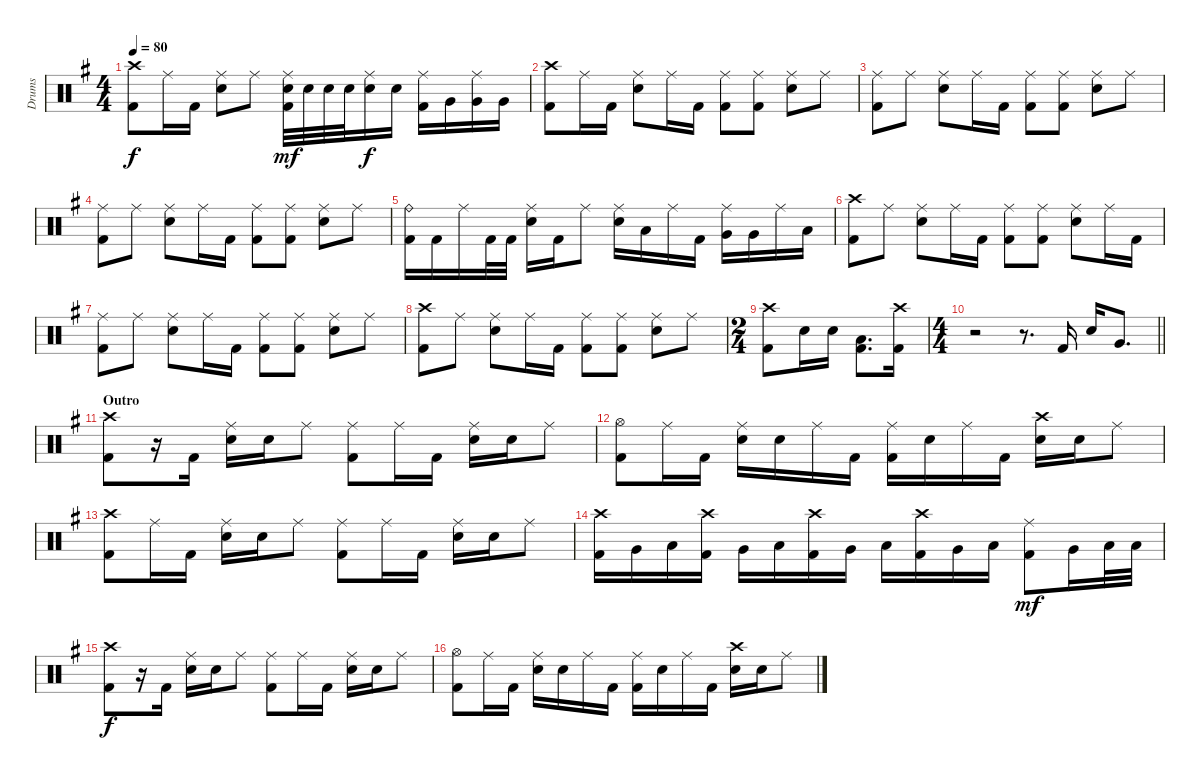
\track ("Drums" "Drums") {instrument percussion}
\staff {score}
\articulation defaults
\ts (4 4)
\tempo 80
\clef neutral
\ks g
("Crash high (hit)" "Kick (hit) 2").8{dy f} "Ride (middle)".16 "Kick (hit) 2".16 ("Ride (middle)" "Electric Snare (hit)").8 "Ride (middle)".8 ("Ride (middle)" "Electric Snare (hit)" "Kick (hit) 2").32{dy mf} "Electric Snare (hit)".32 "Electric Snare (hit)".32 "Electric Snare (hit)".32 ("Ride (middle)" "Electric Snare (hit)").16{dy f} "Electric Snare (hit)".16 ("Ride (middle)" "Kick (hit) 2").16 "Very Low Tom (hit)".16 ("Ride (middle)" "Very Low Tom (hit)").16 "Very Low Tom (hit)".16 |
("Crash high (hit)" "Kick (hit) 2").8 "Ride (middle)".16 "Kick (hit) 2".16 ("Ride (middle)" "Electric Snare (hit)").8 "Ride (middle)".16 "Kick (hit) 2".16 ("Ride (middle)" "Kick (hit) 2").8 ("Ride (middle)" "Kick (hit) 2").8 ("Ride (middle)" "Electric Snare (hit)").8 "Ride (middle)".8 |
("Ride (middle)" "Kick (hit) 2").8 "Ride (middle)".8 ("Ride (middle)" "Electric Snare (hit)").8 "Ride (middle)".16 "Kick (hit) 2".16 ("Ride (middle)" "Kick (hit) 2").8 ("Ride (middle)" "Kick (hit) 2").8 ("Ride (middle)" "Electric Snare (hit)").8 "Ride (middle)".8 |
("Ride (middle)" "Kick (hit) 2").8 "Ride (middle)".8 ("Ride (middle)" "Electric Snare (hit)").8 "Ride (middle)".16 "Kick (hit) 2".16 ("Ride (middle)" "Kick (hit) 2").8 ("Ride (middle)" "Kick (hit) 2").8 ("Ride (middle)" "Electric Snare (hit)").8 "Ride (middle)".8 |
("Ride (bell)" "Kick (hit) 2").16 "Kick (hit) 2".16 "Ride (middle)".16 "Kick (hit) 2".32 "Kick (hit) 2".32 ("Ride (middle)" "Electric Snare (hit)").16 "Kick (hit) 2".16 "Ride (middle)".8 ("Ride (middle)" "Electric Snare (hit)").16 "Low Tom (hit)".16 "Ride (middle)".16 "Kick (hit) 2".16 ("Ride (middle)" "Very Low Tom (hit)").16 "Very Low Tom (hit)".16 "Ride (middle)".16 "Low Tom (hit)".16 |
("Crash high (hit)" "Kick (hit) 2").8 "Ride (middle)".8 ("Ride (middle)" "Electric Snare (hit)").8 "Ride (middle)".16 "Kick (hit) 2".16 ("Ride (middle)" "Kick (hit) 2").8 ("Ride (middle)" "Kick (hit) 2").8 ("Ride (middle)" "Electric Snare (hit)").8 "Ride (middle)".16 "Kick (hit) 2".16 |
("Ride (middle)" "Kick (hit) 2").8 "Ride (middle)".8 ("Ride (middle)" "Electric Snare (hit)").8 "Ride (middle)".16 "Kick (hit) 2".16 ("Ride (middle)" "Kick (hit) 2").8 ("Ride (middle)" "Kick (hit) 2").8 ("Ride (middle)" "Electric Snare (hit)").8 "Ride (middle)".8 |
("Crash high (hit)" "Kick (hit) 2").8 "Ride (middle)".8 ("Ride (middle)" "Electric Snare (hit)").8 "Ride (middle)".16 "Kick (hit) 2".16 ("Ride (middle)" "Kick (hit) 2").8 ("Ride (middle)" "Kick (hit) 2").8 ("Ride (middle)" "Electric Snare (hit)").8 "Ride (middle)".8 |
\ts (2 4)
("Crash high (hit)" "Kick (hit) 2").8 "Electric Snare (hit)".16 "Electric Snare (hit)".16 ("Low Tom (hit)" "Kick (hit) 2").8{d} ("Crash high (hit)" "Kick (hit) 2").16 |
\ts (4 4)
\barLineRight lightlight
r.2 r.8{d} "Kick (hit) 2".16 "Electric Snare (hit)".16 "Very Low Tom (hit)".8{d} |
\section ("" "Outro")
("Crash high (hit)" "Kick (hit) 2").8 r.16 "Kick (hit) 2".16 ("Ride (middle)" "Electric Snare (hit)").16 "Electric Snare (hit)".16 "Ride (middle)".8 ("Ride (middle)" "Kick (hit) 2").8 "Ride (middle)".16 "Kick (hit) 2".16 ("Ride (middle)" "Electric Snare (hit)").16 "Electric Snare (hit)".16 "Ride (middle)".8 |
("Hi-Hat (open)" "Kick (hit) 2").8 "Ride (middle)".16 "Kick (hit) 2".16 ("Ride (middle)" "Electric Snare (hit)").16 "Electric Snare (hit)".16 "Ride (middle)".16 "Kick (hit) 2".16 ("Ride (middle)" "Kick (hit) 2").16 "Electric Snare (hit)".16 "Ride (middle)".16 "Kick (hit) 2".16 ("Crash high (hit)" "Electric Snare (hit)").16 "Electric Snare (hit)".16 "Ride (middle)".8 |
("Crash high (hit)" "Kick (hit) 2").8 "Ride (middle)".16 "Kick (hit) 2".16 ("Ride (middle)" "Electric Snare (hit)").16 "Electric Snare (hit)".16 "Ride (middle)".8 ("Ride (middle)" "Kick (hit) 2").8 "Ride (middle)".16 "Kick (hit) 2".16 ("Ride (middle)" "Electric Snare (hit)").16 "Electric Snare (hit)".16 "Ride (middle)".8 |
("Crash high (hit)" "Kick (hit) 2").16 "Very Low Tom (hit)".16 "Low Tom (hit)".16 ("Crash high (hit)" "Kick (hit) 2").16 "Very Low Tom (hit)".16 "Low Tom (hit)".16 ("Crash high (hit)" "Kick (hit) 2").16 "Very Low Tom (hit)".16 "Low Tom (hit)".16 ("Crash high (hit)" "Kick (hit) 2").16 "Very Low Tom (hit)".16 "Low Tom (hit)".16 ("Ride (middle)" "Kick (hit) 2").8{dy mf} "Very Low Tom (hit)".16 "Low Tom (hit)".32 "Low Tom (hit)".32 |
("Crash high (hit)" "Kick (hit) 2").8{dy f} r.16 "Kick (hit) 2".16 ("Ride (middle)" "Electric Snare (hit)").16 "Electric Snare (hit)".16 "Ride (middle)".8 ("Ride (middle)" "Kick (hit) 2").8 "Ride (middle)".16 "Kick (hit) 2".16 ("Ride (middle)" "Electric Snare (hit)").16 "Electric Snare (hit)".16 "Ride (middle)".8 |
("Hi-Hat (open)" "Kick (hit) 2").8 "Ride (middle)".16 "Kick (hit) 2".16 ("Ride (middle)" "Electric Snare (hit)").16 "Electric Snare (hit)".16 "Ride (middle)".16 "Kick (hit) 2".16 ("Ride (middle)" "Kick (hit) 2").16 "Electric Snare (hit)".16 "Ride (middle)".16 "Kick (hit) 2".16 ("Crash high (hit)" "Electric Snare (hit)").16 "Electric Snare (hit)".16 "Ride (middle)".8
